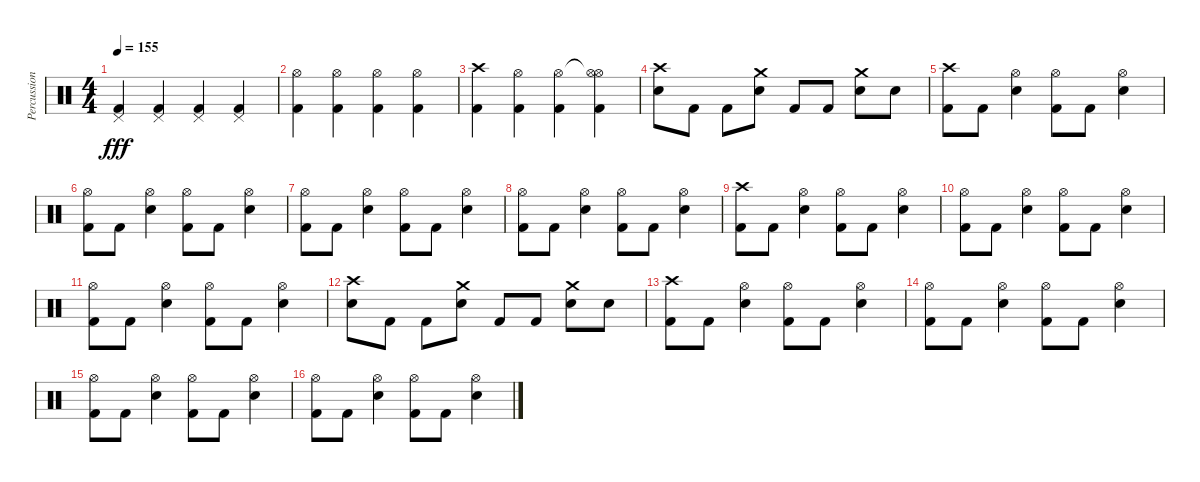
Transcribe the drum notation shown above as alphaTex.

\track ("Percussion" "Percussion") {instrument percussion}
\staff {score}
\articulation defaults
\ts (4 4)
\tempo 155
\clef neutral
\ks c
("Pedal Hi-Hat (hit)" "Kick (hit) 2").4{dy fff} ("Pedal Hi-Hat (hit)" "Kick (hit) 2").4 ("Pedal Hi-Hat (hit)" "Kick (hit) 2").4 ("Pedal Hi-Hat (hit)" "Kick (hit) 2").4 |
("Hi-Hat (open)" "Kick (hit) 2").4 ("Hi-Hat (open)" "Kick (hit) 2").4 ("Hi-Hat (open)" "Kick (hit) 2").4 ("Hi-Hat (open)" "Kick (hit) 2").4 |
("Crash high (hit)" "Kick (hit) 2").4 ("Hi-Hat (open)" "Kick (hit) 2").4 ("Hi-Hat (open)" "Kick (hit) 2").4 ("Hi-Hat (open)"{t} "Hi-Hat (open)" "Kick (hit) 2").4 |
("Crash high (hit)" "Electric Snare (hit)").8 "Kick (hit) 2".8 "Kick (hit) 2".8 ("Crash medium (hit)" "Electric Snare (hit)").8 "Kick (hit) 2".8 "Kick (hit) 2".8 ("Crash medium (hit)" "Electric Snare (hit)").8 "Electric Snare (hit)".8 |
("Crash high (hit)" "Kick (hit) 2").8 "Kick (hit) 2".8 ("Hi-Hat (open)" "Electric Snare (hit)").4 ("Hi-Hat (open)" "Kick (hit) 2").8 "Kick (hit) 2".8 ("Hi-Hat (open)" "Electric Snare (hit)").4 |
("Hi-Hat (open)" "Kick (hit) 2").8 "Kick (hit) 2".8 ("Hi-Hat (open)" "Electric Snare (hit)").4 ("Hi-Hat (open)" "Kick (hit) 2").8 "Kick (hit) 2".8 ("Hi-Hat (open)" "Electric Snare (hit)").4 |
("Hi-Hat (open)" "Kick (hit) 2").8 "Kick (hit) 2".8 ("Hi-Hat (open)" "Electric Snare (hit)").4 ("Hi-Hat (open)" "Kick (hit) 2").8 "Kick (hit) 2".8 ("Hi-Hat (open)" "Electric Snare (hit)").4 |
("Hi-Hat (open)" "Kick (hit) 2").8 "Kick (hit) 2".8 ("Hi-Hat (open)" "Electric Snare (hit)").4 ("Hi-Hat (open)" "Kick (hit) 2").8 "Kick (hit) 2".8 ("Hi-Hat (open)" "Electric Snare (hit)").4 |
("Crash high (hit)" "Kick (hit) 2").8 "Kick (hit) 2".8 ("Hi-Hat (open)" "Electric Snare (hit)").4 ("Hi-Hat (open)" "Kick (hit) 2").8 "Kick (hit) 2".8 ("Hi-Hat (open)" "Electric Snare (hit)").4 |
("Hi-Hat (open)" "Kick (hit) 2").8 "Kick (hit) 2".8 ("Hi-Hat (open)" "Electric Snare (hit)").4 ("Hi-Hat (open)" "Kick (hit) 2").8 "Kick (hit) 2".8 ("Hi-Hat (open)" "Electric Snare (hit)").4 |
("Hi-Hat (open)" "Kick (hit) 2").8 "Kick (hit) 2".8 ("Hi-Hat (open)" "Electric Snare (hit)").4 ("Hi-Hat (open)" "Kick (hit) 2").8 "Kick (hit) 2".8 ("Hi-Hat (open)" "Electric Snare (hit)").4 |
("Crash high (hit)" "Electric Snare (hit)").8 "Kick (hit) 2".8 "Kick (hit) 2".8 ("Crash medium (hit)" "Electric Snare (hit)").8 "Kick (hit) 2".8 "Kick (hit) 2".8 ("Crash medium (hit)" "Electric Snare (hit)").8 "Electric Snare (hit)".8 |
("Crash high (hit)" "Kick (hit) 2").8 "Kick (hit) 2".8 ("Hi-Hat (open)" "Electric Snare (hit)").4 ("Hi-Hat (open)" "Kick (hit) 2").8 "Kick (hit) 2".8 ("Hi-Hat (open)" "Electric Snare (hit)").4 |
("Hi-Hat (open)" "Kick (hit) 2").8 "Kick (hit) 2".8 ("Hi-Hat (open)" "Electric Snare (hit)").4 ("Hi-Hat (open)" "Kick (hit) 2").8 "Kick (hit) 2".8 ("Hi-Hat (open)" "Electric Snare (hit)").4 |
("Hi-Hat (open)" "Kick (hit) 2").8 "Kick (hit) 2".8 ("Hi-Hat (open)" "Electric Snare (hit)").4 ("Hi-Hat (open)" "Kick (hit) 2").8 "Kick (hit) 2".8 ("Hi-Hat (open)" "Electric Snare (hit)").4 |
("Hi-Hat (open)" "Kick (hit) 2").8 "Kick (hit) 2".8 ("Hi-Hat (open)" "Electric Snare (hit)").4 ("Hi-Hat (open)" "Kick (hit) 2").8 "Kick (hit) 2".8 ("Hi-Hat (open)" "Electric Snare (hit)").4
